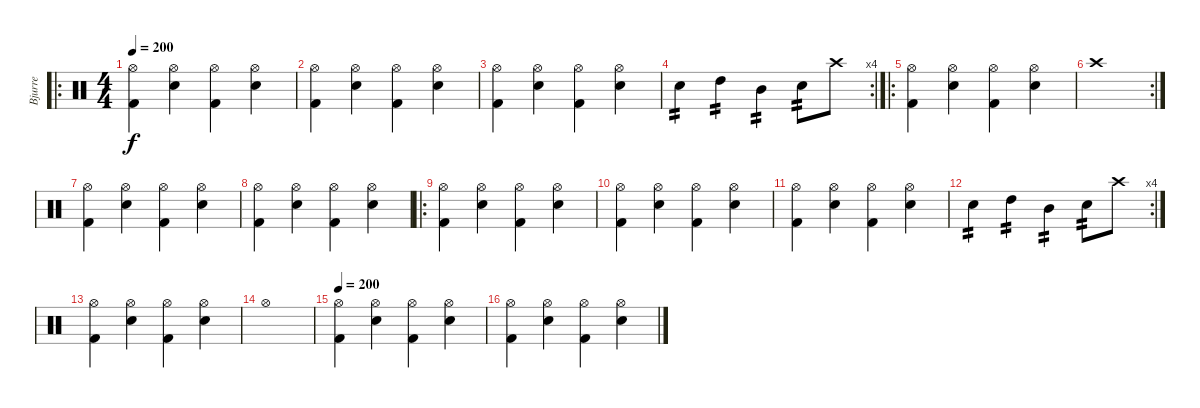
\track ("Bjurre" "Bjurre") {instrument percussion}
\staff
\articulation defaults
\ro
\ts (4 4)
\tempo 200
\clef neutral
\ks c
("Hi-Hat (open)" "Kick (hit) 2").4{dy f} ("Hi-Hat (open)" "Electric Snare (hit)").4 ("Hi-Hat (open)" "Kick (hit) 2").4 ("Hi-Hat (open)" "Electric Snare (hit)").4 |
("Hi-Hat (open)" "Kick (hit) 2").4 ("Hi-Hat (open)" "Electric Snare (hit)").4 ("Hi-Hat (open)" "Kick (hit) 2").4 ("Hi-Hat (open)" "Electric Snare (hit)").4 |
("Hi-Hat (open)" "Kick (hit) 2").4 ("Hi-Hat (open)" "Electric Snare (hit)").4 ("Hi-Hat (open)" "Kick (hit) 2").4 ("Hi-Hat (open)" "Electric Snare (hit)").4 |
\rc 4 "Electric Snare (hit)".4{tp 2} "High Tom (hit)".4{tp 2} "Mid Tom (hit)".4{tp 2} "Electric Snare (hit)".8{tp 2} "Crash high (hit)".8
|
\ro
("Hi-Hat (open)" "Kick (hit) 2").4 ("Hi-Hat (open)" "Electric Snare (hit)").4 ("Hi-Hat (open)" "Kick (hit) 2").4 ("Hi-Hat (open)" "Electric Snare (hit)").4 |
\rc 2 "Crash high (hit)".1
|
("Hi-Hat (open)" "Kick (hit) 2").4 ("Hi-Hat (open)" "Electric Snare (hit)").4 ("Hi-Hat (open)" "Kick (hit) 2").4 ("Hi-Hat (open)" "Electric Snare (hit)").4 |
("Hi-Hat (open)" "Kick (hit) 2").4 ("Hi-Hat (open)" "Electric Snare (hit)").4 ("Hi-Hat (open)" "Kick (hit) 2").4 ("Hi-Hat (open)" "Electric Snare (hit)").4 |
\ro
("Hi-Hat (open)" "Kick (hit) 2").4 ("Hi-Hat (open)" "Electric Snare (hit)").4 ("Hi-Hat (open)" "Kick (hit) 2").4 ("Hi-Hat (open)" "Electric Snare (hit)").4 |
("Hi-Hat (open)" "Kick (hit) 2").4 ("Hi-Hat (open)" "Electric Snare (hit)").4 ("Hi-Hat (open)" "Kick (hit) 2").4 ("Hi-Hat (open)" "Electric Snare (hit)").4 |
("Hi-Hat (open)" "Kick (hit) 2").4 ("Hi-Hat (open)" "Electric Snare (hit)").4 ("Hi-Hat (open)" "Kick (hit) 2").4 ("Hi-Hat (open)" "Electric Snare (hit)").4 |
\rc 4 "Electric Snare (hit)".4{tp 2} "High Tom (hit)".4{tp 2} "Mid Tom (hit)".4{tp 2} "Electric Snare (hit)".8{tp 2} "Crash high (hit)".8
|
("Hi-Hat (open)" "Kick (hit) 2").4 ("Hi-Hat (open)" "Electric Snare (hit)").4 ("Hi-Hat (open)" "Kick (hit) 2").4 ("Hi-Hat (open)" "Electric Snare (hit)").4 |
"Hi-Hat (open)".1 |
\tempo 200
("Hi-Hat (open)" "Kick (hit) 2").4 ("Hi-Hat (open)" "Electric Snare (hit)").4 ("Hi-Hat (open)" "Kick (hit) 2").4 ("Hi-Hat (open)" "Electric Snare (hit)").4 |
("Hi-Hat (open)" "Kick (hit) 2").4 ("Hi-Hat (open)" "Electric Snare (hit)").4 ("Hi-Hat (open)" "Kick (hit) 2").4 ("Hi-Hat (open)" "Electric Snare (hit)").4
